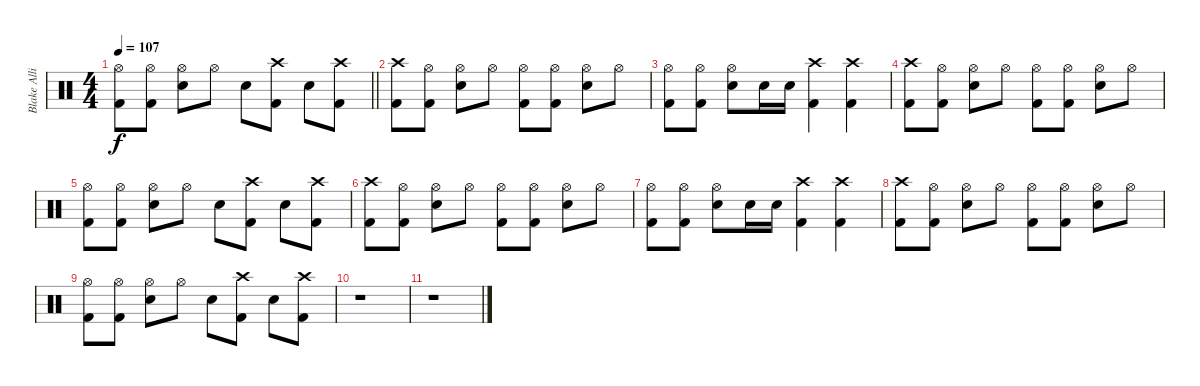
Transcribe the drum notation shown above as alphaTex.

\track ("Blake Allison (Drums)" "Blake Alli") {instrument percussion}
\staff {score}
\articulation defaults
\ts (4 4)
\tempo 107
\clef neutral
\barLineRight lightlight
\ks c
("Hi-Hat (open)" "Kick (hit) 2").8{dy f} ("Hi-Hat (open)" "Kick (hit) 2").8 ("Hi-Hat (open)" "Electric Snare (hit)").8 "Hi-Hat (open)".8 "Electric Snare (hit)".8 ("Crash high (hit)" "Kick (hit) 2").8 "Electric Snare (hit)".8 ("Crash high (hit)" "Kick (hit) 2").8 |
("Crash high (hit)" "Kick (hit) 2").8 ("Hi-Hat (open)" "Kick (hit) 2").8 ("Hi-Hat (open)" "Electric Snare (hit)").8 "Hi-Hat (open)".8 ("Hi-Hat (open)" "Kick (hit) 2").8 ("Hi-Hat (open)" "Kick (hit) 2").8 ("Hi-Hat (open)" "Electric Snare (hit)").8 "Hi-Hat (open)".8 |
("Hi-Hat (open)" "Kick (hit) 2").8 ("Hi-Hat (open)" "Kick (hit) 2").8 ("Hi-Hat (open)" "Electric Snare (hit)").8 "Electric Snare (hit)".16 "Electric Snare (hit)".16 ("Crash high (hit)" "Kick (hit) 2").4 ("Crash high (hit)" "Kick (hit) 2").4 |
("Crash high (hit)" "Kick (hit) 2").8 ("Hi-Hat (open)" "Kick (hit) 2").8 ("Hi-Hat (open)" "Electric Snare (hit)").8 "Hi-Hat (open)".8 ("Hi-Hat (open)" "Kick (hit) 2").8 ("Hi-Hat (open)" "Kick (hit) 2").8 ("Hi-Hat (open)" "Electric Snare (hit)").8 "Hi-Hat (open)".8 |
("Hi-Hat (open)" "Kick (hit) 2").8 ("Hi-Hat (open)" "Kick (hit) 2").8 ("Hi-Hat (open)" "Electric Snare (hit)").8 "Hi-Hat (open)".8 "Electric Snare (hit)".8 ("Crash high (hit)" "Kick (hit) 2").8 "Electric Snare (hit)".8 ("Crash high (hit)" "Kick (hit) 2").8 |
("Crash high (hit)" "Kick (hit) 2").8 ("Hi-Hat (open)" "Kick (hit) 2").8 ("Hi-Hat (open)" "Electric Snare (hit)").8 "Hi-Hat (open)".8 ("Hi-Hat (open)" "Kick (hit) 2").8 ("Hi-Hat (open)" "Kick (hit) 2").8 ("Hi-Hat (open)" "Electric Snare (hit)").8 "Hi-Hat (open)".8 |
("Hi-Hat (open)" "Kick (hit) 2").8 ("Hi-Hat (open)" "Kick (hit) 2").8 ("Hi-Hat (open)" "Electric Snare (hit)").8 "Electric Snare (hit)".16 "Electric Snare (hit)".16 ("Crash high (hit)" "Kick (hit) 2").4 ("Crash high (hit)" "Kick (hit) 2").4 |
("Crash high (hit)" "Kick (hit) 2").8 ("Hi-Hat (open)" "Kick (hit) 2").8 ("Hi-Hat (open)" "Electric Snare (hit)").8 "Hi-Hat (open)".8 ("Hi-Hat (open)" "Kick (hit) 2").8 ("Hi-Hat (open)" "Kick (hit) 2").8 ("Hi-Hat (open)" "Electric Snare (hit)").8 "Hi-Hat (open)".8 |
("Hi-Hat (open)" "Kick (hit) 2").8 ("Hi-Hat (open)" "Kick (hit) 2").8 ("Hi-Hat (open)" "Electric Snare (hit)").8 "Hi-Hat (open)".8 "Electric Snare (hit)".8 ("Crash high (hit)" "Kick (hit) 2").8 "Electric Snare (hit)".8 ("Crash high (hit)" "Kick (hit) 2").8 |
r.1 |
r.1
